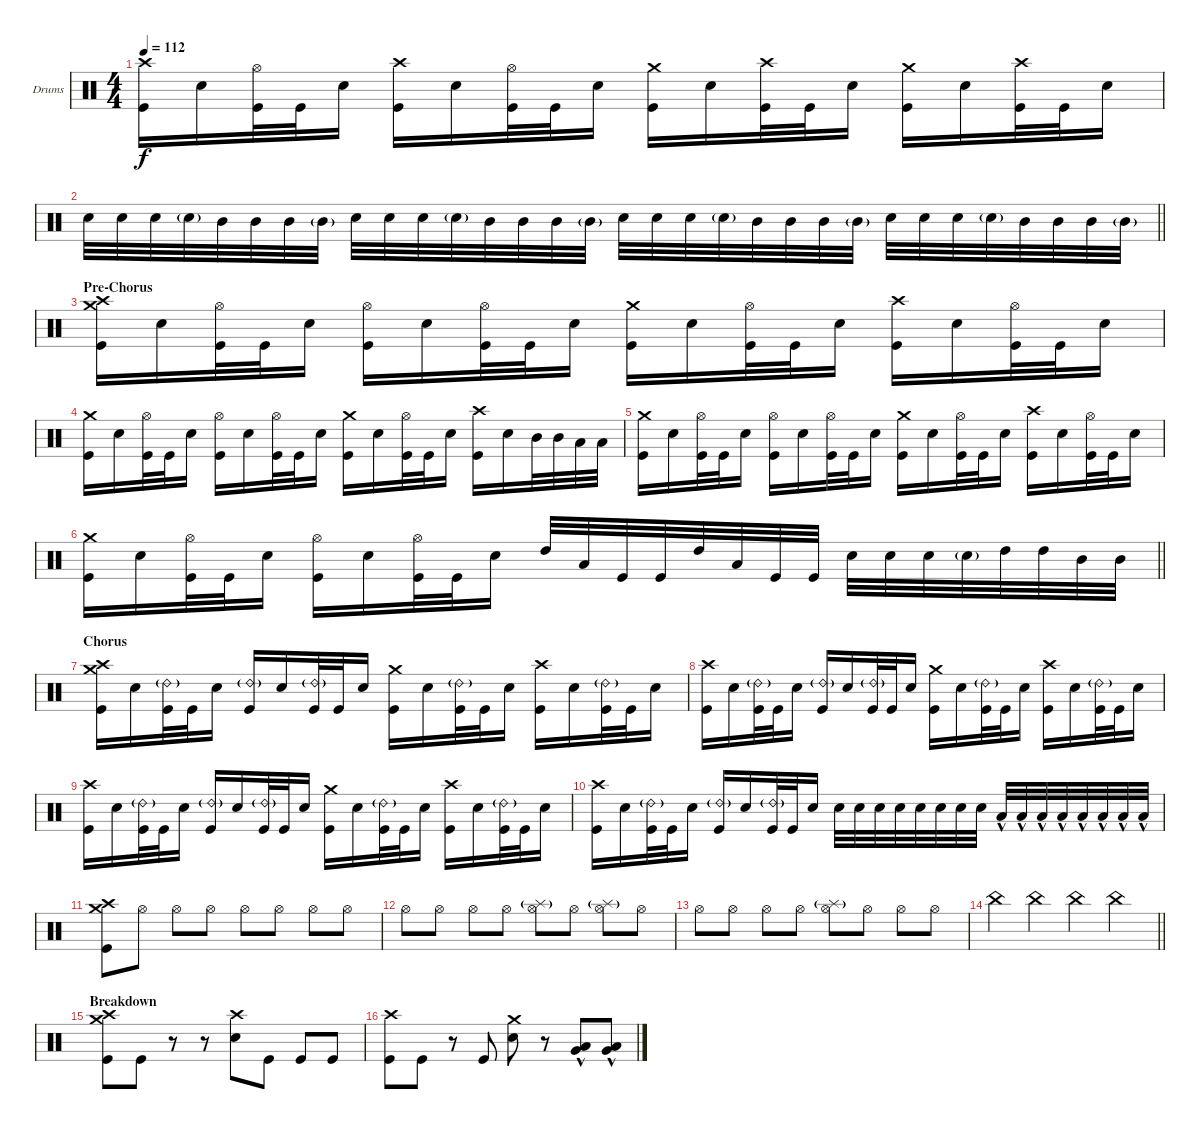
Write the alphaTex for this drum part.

\bracketExtendMode groupsimilarinstruments
\firstSystemTrackNameOrientation horizontal
\otherSystemsTrackNameOrientation horizontal
\track ("Drumkit" "Drums") {instrument percussion}
\staff {score}
\articulation defaults
\ts (4 4)
\tempo 112
\clef neutral
\scale
0.333333
\ks c
("Kick (hit)" "Crash high (hit)").16{dy f} "Snare (hit) 2".16 ("Kick (hit)" "Hi-Hat (open)").32 "Kick (hit)".32 "Snare (hit) 2".16 ("Kick (hit)" "Crash high (hit)").16 "Snare (hit) 2".16 ("Kick (hit)" "Hi-Hat (open)").32 "Kick (hit)".32 "Snare (hit) 2".16 ("Kick (hit)" "Crash medium (hit)").16 "Snare (hit) 2".16 ("Kick (hit)" "Crash high (hit)").32 "Kick (hit)".32 "Snare (hit) 2".16 ("Kick (hit)" "Crash medium (hit)").16 "Snare (hit) 2".16 ("Kick (hit)" "Crash high (hit)").32 "Kick (hit)".32 "Snare (hit) 2".16 |
\scale
0.333333
\barLineRight lightlight "Snare (hit) 2".32 "Snare (hit) 2".32 "Snare (hit) 2".32 "Snare (hit) 2"{g}.32 "Mid Tom (hit)".32 "Mid Tom (hit)".32 "Mid Tom (hit)".32 "Mid Tom (hit)"{g}.32 "Snare (hit) 2".32 "Snare (hit) 2".32 "Snare (hit) 2".32 "Snare (hit) 2"{g}.32 "Mid Tom (hit)".32 "Mid Tom (hit)".32 "Mid Tom (hit)".32 "Mid Tom (hit)"{g}.32 "Snare (hit) 2".32 "Snare (hit) 2".32 "Snare (hit) 2".32 "Snare (hit) 2"{g}.32 "Mid Tom (hit)".32 "Mid Tom (hit)".32 "Mid Tom (hit)".32 "Mid Tom (hit)"{g}.32 "Snare (hit) 2".32 "Snare (hit) 2".32 "Snare (hit) 2".32 "Snare (hit) 2"{g}.32 "Mid Tom (hit)".32 "Mid Tom (hit)".32 "Mid Tom (hit)".32 "Mid Tom (hit)"{g}.32
|
\section ("" "Pre-Chorus")
\scale
0.333333 ("Kick (hit)" "Crash medium (hit)" "Crash high (hit)").16 "Snare (hit) 2".16 ("Kick (hit)" "Hi-Hat (open)").32 "Kick (hit)".32 "Snare (hit) 2".16 ("Kick (hit)" "Hi-Hat (open)").16 "Snare (hit) 2".16 ("Kick (hit)" "Hi-Hat (open)").32 "Kick (hit)".32 "Snare (hit) 2".16 ("Kick (hit)" "Crash medium (hit)").16 "Snare (hit) 2".16 ("Kick (hit)" "Hi-Hat (open)").32 "Kick (hit)".32 "Snare (hit) 2".16 ("Kick (hit)" "Crash high (hit)").16 "Snare (hit) 2".16 ("Kick (hit)" "Hi-Hat (open)").32 "Kick (hit)".32 "Snare (hit) 2".16 |
\scale
0.333333 ("Kick (hit)" "Crash medium (hit)").16 "Snare (hit) 2".16 ("Kick (hit)" "Hi-Hat (open)").32 "Kick (hit)".32 "Snare (hit) 2".16 ("Kick (hit)" "Hi-Hat (open)").16 "Snare (hit) 2".16 ("Kick (hit)" "Hi-Hat (open)").32 "Kick (hit)".32 "Snare (hit) 2".16 ("Kick (hit)" "Crash medium (hit)").16 "Snare (hit) 2".16 ("Kick (hit)" "Hi-Hat (open)").32 "Kick (hit)".32 "Snare (hit) 2".16 ("Kick (hit)" "Crash high (hit)").16 "Snare (hit) 2".16 "Mid Tom (hit)".32 "Mid Tom (hit)".32 "Low Tom (hit)".32 "Low Tom (hit)".32 |
\scale
0.333333 ("Kick (hit)" "Crash medium (hit)").16 "Snare (hit) 2".16 ("Kick (hit)" "Hi-Hat (open)").32 "Kick (hit)".32 "Snare (hit) 2".16 ("Kick (hit)" "Hi-Hat (open)").16 "Snare (hit) 2".16 ("Kick (hit)" "Hi-Hat (open)").32 "Kick (hit)".32 "Snare (hit) 2".16 ("Kick (hit)" "Crash medium (hit)").16 "Snare (hit) 2".16 ("Kick (hit)" "Hi-Hat (open)").32 "Kick (hit)".32 "Snare (hit) 2".16 ("Kick (hit)" "Crash high (hit)").16 "Snare (hit) 2".16 ("Kick (hit)" "Hi-Hat (open)").32 "Kick (hit)".32 "Snare (hit) 2".16 |
\scale
0.333333
\barLineRight lightlight
("Kick (hit)" "Crash medium (hit)").16 "Snare (hit) 2".16 ("Kick (hit)" "Hi-Hat (open)").32 "Kick (hit)".32 "Snare (hit) 2".16 ("Kick (hit)" "Hi-Hat (open)").16 "Snare (hit) 2".16 ("Kick (hit)" "Hi-Hat (open)").32 "Kick (hit)".32 "Snare (hit) 2".16 "High Tom (hit)".32 "Low Tom (hit)".32 "Kick (hit)".32 "Kick (hit)".32 "High Tom (hit)".32 "Low Tom (hit)".32 "Kick (hit)".32 "Kick (hit)".32 "Snare (hit) 2".32 "Snare (hit) 2".32 "Snare (hit) 2".32 "Snare (hit) 2"{g}.32 "High Tom (hit)".32 "High Tom (hit)".32 "Mid Tom (hit)".32 "Mid Tom (hit)".32 |
\section ("" "Chorus")
\scale
0.333333 ("Kick (hit)" "Crash medium (hit)" "Crash high (hit)").16 "Snare (hit) 2".16 ("Kick (hit)" "Ride (bell) 2"{g}).32 "Kick (hit)".32 "Snare (hit) 2".16 ("Kick (hit)" "Ride (bell) 2"{g}).16 "Snare (hit) 2".16 ("Kick (hit)" "Ride (bell) 2"{g}).32 "Kick (hit)".32 "Snare (hit) 2".16 ("Kick (hit)" "Crash medium (hit)").16 "Snare (hit) 2".16 ("Kick (hit)" "Ride (bell) 2"{g}).32 "Kick (hit)".32 "Snare (hit) 2".16 ("Kick (hit)" "Crash high (hit)").16 "Snare (hit) 2".16 ("Kick (hit)" "Ride (bell) 2"{g}).32 "Kick (hit)".32 "Snare (hit) 2".16 |
\scale
0.333333 ("Kick (hit)" "Crash high (hit)").16 "Snare (hit) 2".16 ("Kick (hit)" "Ride (bell) 2"{g}).32 "Kick (hit)".32 "Snare (hit) 2".16 ("Kick (hit)" "Ride (bell) 2"{g}).16 "Snare (hit) 2".16 ("Kick (hit)" "Ride (bell) 2"{g}).32 "Kick (hit)".32 "Snare (hit) 2".16 ("Kick (hit)" "Crash medium (hit)").16 "Snare (hit) 2".16 ("Kick (hit)" "Ride (bell) 2"{g}).32 "Kick (hit)".32 "Snare (hit) 2".16 ("Kick (hit)" "Crash high (hit)").16 "Snare (hit) 2".16 ("Kick (hit)" "Ride (bell) 2"{g}).32 "Kick (hit)".32 "Snare (hit) 2".16 |
\scale
0.333333 ("Kick (hit)" "Crash high (hit)").16 "Snare (hit) 2".16 ("Kick (hit)" "Ride (bell) 2"{g}).32 "Kick (hit)".32 "Snare (hit) 2".16 ("Kick (hit)" "Ride (bell) 2"{g}).16 "Snare (hit) 2".16 ("Kick (hit)" "Ride (bell) 2"{g}).32 "Kick (hit)".32 "Snare (hit) 2".16 ("Kick (hit)" "Crash medium (hit)").16 "Snare (hit) 2".16 ("Kick (hit)" "Ride (bell) 2"{g}).32 "Kick (hit)".32 "Snare (hit) 2".16 ("Kick (hit)" "Crash high (hit)").16 "Snare (hit) 2".16 ("Kick (hit)" "Ride (bell) 2"{g}).32 "Kick (hit)".32 "Snare (hit) 2".16 |
\scale
0.333333 ("Kick (hit)" "Crash high (hit)").16 "Snare (hit) 2".16 ("Kick (hit)" "Ride (bell) 2"{g}).32 "Kick (hit)".32 "Snare (hit) 2".16 ("Kick (hit)" "Ride (bell) 2"{g}).16 "Snare (hit) 2".16 ("Kick (hit)" "Ride (bell) 2"{g}).32 "Kick (hit)".32 "Snare (hit) 2".16 "Snare (hit) 2".32 "Snare (hit) 2".32 "Snare (hit) 2".32 "Snare (hit) 2".32 "Snare (hit) 2".32 "Snare (hit) 2".32 "Snare (hit) 2".32 "Snare (hit) 2".32 "Low Tom (hit)"{hac}.32 "Low Tom (hit)"{hac}.32 "Low Tom (hit)"{hac}.32 "Low Tom (hit)"{hac}.32 "Low Tom (hit)"{hac}.32 "Low Tom (hit)"{hac}.32 "Low Tom (hit)"{hac}.32 "Low Tom (hit)"{hac}.32 |
\scale
0.333333 ("Kick (hit)" "Crash high (hit)" "Crash medium (hit)").8 "Hi-Hat (open)".8 "Hi-Hat (open)".8 "Hi-Hat (open)".8 "Hi-Hat (open)".8 "Hi-Hat (open)".8 "Hi-Hat (open)".8 "Hi-Hat (open)".8 |
\scale
0.333333 "Hi-Hat (open)".8 "Hi-Hat (open)".8 "Hi-Hat (open)".8 "Hi-Hat (open)".8 ("Hi-Hat (open)" "Splash (hit)"{g}).8 "Hi-Hat (open)".8 ("Hi-Hat (open)" "Splash (hit)"{g}).8 "Hi-Hat (open)".8 |
\scale
0.333333 "Hi-Hat (open)".8 "Hi-Hat (open)".8 "Hi-Hat (open)".8 "Hi-Hat (open)".8 ("Hi-Hat (open)" "Splash (hit)"{g}).8 "Hi-Hat (open)".8 "Hi-Hat (open)".8 "Hi-Hat (open)".8 |
\scale
0.333333
\barLineRight lightlight "China (hit)".4 "China (hit)".4 "China (hit)".4 "China (hit)".4
|
\section ("" "Breakdown")
\scale
0.333333 ("Kick (hit)" "Crash medium (hit)" "Crash high (hit)").8 "Kick (hit)".8 r.8 r.8 ("Snare (hit) 2" "Crash high (hit)").8 "Kick (hit)".8 "Kick (hit)".8 "Kick (hit)".8 |
\scale
0.333333 ("Kick (hit)" "Crash high (hit)").8 "Kick (hit)".8 r.8 "Kick (hit)".8 ("Snare (hit) 2" "Crash medium (hit)").8 r.8 ("Very Low Tom (hit)"{hac} "Low Tom (hit)"{hac}).8 ("Low Tom (hit)"{hac} "Very Low Tom (hit)"{hac}).8
